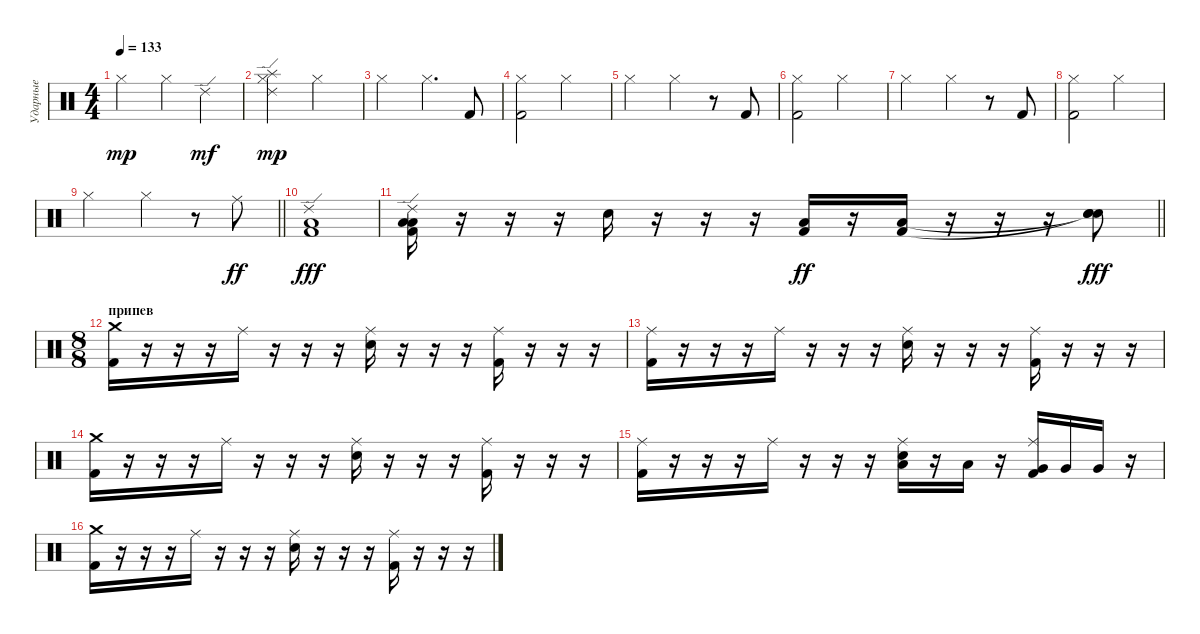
\track ("Ударные" "Ударные") {instrument percussion}
\staff {score}
\articulation defaults
\ts (4 4)
\tempo 133
\clef neutral
\ks c "Hi-Hat (closed)".2{dy mp} "Hi-Hat (closed)".4 "Ride (edge) 2".4{dy mf}
|
("Ride (edge) 2" "Splash (hit)" "Hi-Hat (closed)").2{dy mp} "Hi-Hat (closed)".2 |
"Hi-Hat (closed)".2 "Hi-Hat (closed)".4{d} "Kick (hit) 2".8 |
("Kick (hit) 2" "Hi-Hat (closed)").2 "Hi-Hat (closed)".2 |
"Hi-Hat (closed)".2 "Hi-Hat (closed)".4 r.8 "Kick (hit) 2".8 |
("Kick (hit) 2" "Hi-Hat (closed)").2 "Hi-Hat (closed)".2 |
"Hi-Hat (closed)".2 "Hi-Hat (closed)".4 r.8 "Kick (hit) 2".8 |
("Kick (hit) 2" "Hi-Hat (closed)").2 "Hi-Hat (closed)".2 |
\barLineRight lightlight "Hi-Hat (closed)".2 "Hi-Hat (closed)".4
r.8 "Ride (middle)".8{dy ff} |
("Ride (edge) 2" "Low Floor Tom (hit)" "Kick (hit) 2").1{dy fff} |
\barLineRight lightlight
("Ride (edge) 2" "Low Floor Tom (hit)" "Low Floor Tom (hit)" "Kick (hit) 2").16 r.16 r.16 r.16 "Snare (hit) 2".16 r.16 r.16 r.16 ("Low Tom (hit)" "Kick (hit) 2").16{dy ff} r.16 ("Low Floor Tom (hit)" "Kick (hit) 2").16 r.16 r.16 r.16 ("Snare (hit)"{t} "Snare (hit)"{t} "Snare (hit) 2").8{dy fff} |
\ts (8 8)
\section ("" "припев")
("Crash medium (hit)" "Kick (hit) 2").16 r.16 r.16 r.16 "Ride (middle)".16 r.16 r.16 r.16 ("Ride (middle)" "Snare (hit) 2").16 r.16 r.16 r.16 ("Ride (middle)" "Kick (hit) 2").16 r.16 r.16 r.16 |
("Ride (middle)" "Kick (hit) 2").16 r.16 r.16 r.16 "Ride (middle)".16 r.16 r.16 r.16 ("Ride (middle)" "Snare (hit) 2").16 r.16 r.16 r.16 ("Ride (middle)" "Kick (hit) 2").16 r.16 r.16 r.16 |
("Crash medium (hit)" "Kick (hit) 2").16 r.16 r.16 r.16 "Ride (middle)".16 r.16 r.16 r.16 ("Ride (middle)" "Snare (hit) 2").16 r.16 r.16 r.16 ("Ride (middle)" "Kick (hit) 2").16 r.16 r.16 r.16 |
("Ride (middle)" "Kick (hit) 2").16 r.16 r.16 r.16 "Ride (middle)".16 r.16 r.16 r.16 ("Ride (middle)" "Low Tom (hit)" "Snare (hit) 2").16 r.16 "Low Tom (hit)".16 r.16 ("Ride (middle)" "Very Low Tom (hit)" "Kick (hit) 2").16 "Very Low Tom (hit)".16 "Very Low Tom (hit)".16 r.16 |
("Crash medium (hit)" "Kick (hit) 2").16 r.16 r.16 r.16 "Ride (middle)".16 r.16 r.16 r.16 ("Ride (middle)" "Snare (hit) 2").16 r.16 r.16 r.16 ("Ride (middle)" "Kick (hit) 2").16 r.16 r.16 r.16
